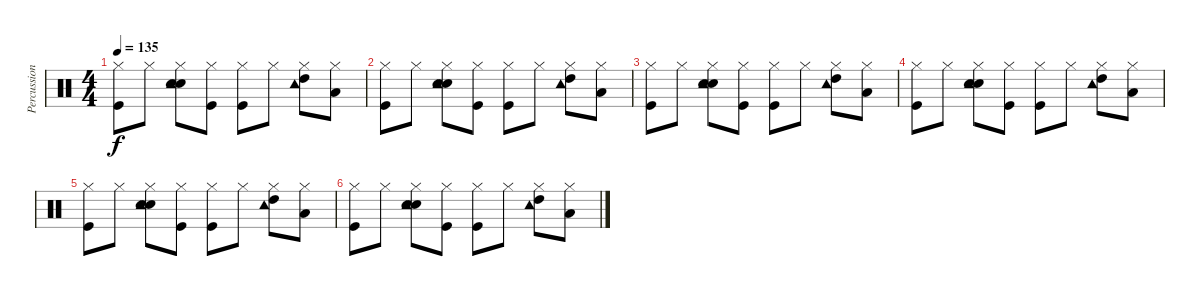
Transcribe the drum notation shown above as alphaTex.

\track ("Percussion" "Percussion") {instrument percussion}
\staff {score}
\articulation defaults
\ts (4 4)
\tempo 135
\clef neutral
\ks c
("Hi-Hat (closed)" "Kick (hit)").8{dy f volume 8} "Hi-Hat (closed)".8 ("Hi-Hat (closed)" "Electric Snare (hit)" "Tambourine (hit)" "Hand Clap (hit)").8 ("Hi-Hat (closed)" "Kick (hit)").8 ("Hi-Hat (closed)" "Kick (hit)").8 "Hi-Hat (closed)".8 ("Hi-Hat (closed)" "High Tom (hit)" "Tambourine (hit)").8 ("Hi-Hat (closed)" "Low Tom (hit)").8 |
("Hi-Hat (closed)" "Kick (hit)").8 "Hi-Hat (closed)".8 ("Hi-Hat (closed)" "Electric Snare (hit)" "Tambourine (hit)" "Hand Clap (hit)").8 ("Hi-Hat (closed)" "Kick (hit)").8 ("Hi-Hat (closed)" "Kick (hit)").8 "Hi-Hat (closed)".8 ("Hi-Hat (closed)" "High Tom (hit)" "Tambourine (hit)").8 ("Hi-Hat (closed)" "Low Tom (hit)").8 |
("Hi-Hat (closed)" "Kick (hit)").8{volume 4} "Hi-Hat (closed)".8 ("Hi-Hat (closed)" "Electric Snare (hit)" "Tambourine (hit)" "Hand Clap (hit)").8 ("Hi-Hat (closed)" "Kick (hit)").8 ("Hi-Hat (closed)" "Kick (hit)").8 "Hi-Hat (closed)".8 ("Hi-Hat (closed)" "High Tom (hit)" "Tambourine (hit)").8 ("Hi-Hat (closed)" "Low Tom (hit)").8 |
("Hi-Hat (closed)" "Kick (hit)").8 "Hi-Hat (closed)".8 ("Hi-Hat (closed)" "Electric Snare (hit)" "Tambourine (hit)" "Hand Clap (hit)").8 ("Hi-Hat (closed)" "Kick (hit)").8 ("Hi-Hat (closed)" "Kick (hit)").8 "Hi-Hat (closed)".8 ("Hi-Hat (closed)" "High Tom (hit)" "Tambourine (hit)").8 ("Hi-Hat (closed)" "Low Tom (hit)").8 |
("Hi-Hat (closed)" "Kick (hit)").8{volume 0} "Hi-Hat (closed)".8 ("Hi-Hat (closed)" "Electric Snare (hit)" "Tambourine (hit)" "Hand Clap (hit)").8 ("Hi-Hat (closed)" "Kick (hit)").8 ("Hi-Hat (closed)" "Kick (hit)").8 "Hi-Hat (closed)".8 ("Hi-Hat (closed)" "High Tom (hit)" "Tambourine (hit)").8 ("Hi-Hat (closed)" "Low Tom (hit)").8 |
("Hi-Hat (closed)" "Kick (hit)").8 "Hi-Hat (closed)".8 ("Hi-Hat (closed)" "Electric Snare (hit)" "Tambourine (hit)" "Hand Clap (hit)").8 ("Hi-Hat (closed)" "Kick (hit)").8 ("Hi-Hat (closed)" "Kick (hit)").8 "Hi-Hat (closed)".8 ("Hi-Hat (closed)" "High Tom (hit)" "Tambourine (hit)").8 ("Hi-Hat (closed)" "Low Tom (hit)").8
